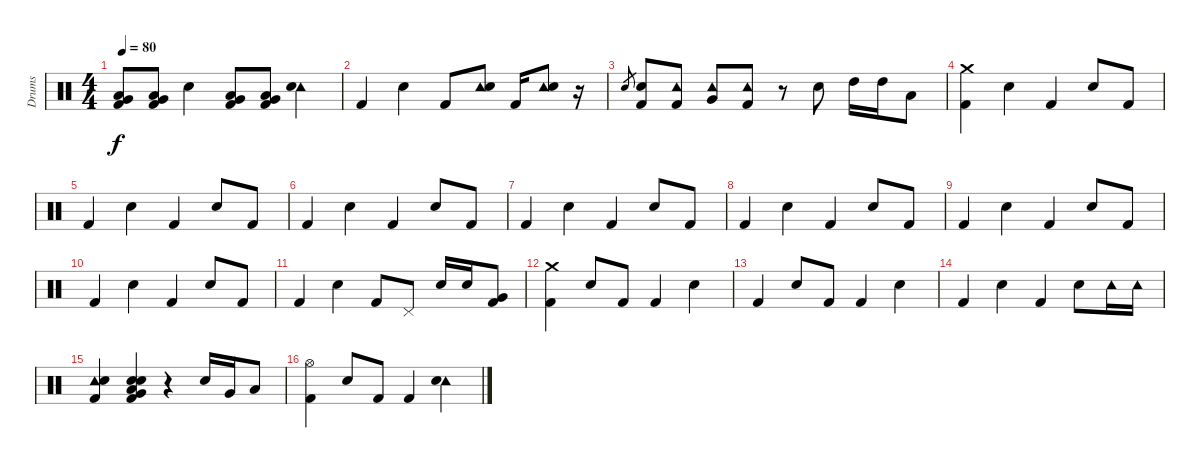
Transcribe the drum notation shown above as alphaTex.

\track ("Drums" "Drums") {instrument percussion}
\staff {score}
\articulation defaults
\ts (4 4)
\tempo 80
\clef neutral
\ks c
("Very Low Tom (hit)" "Kick (hit) 2" "Low Floor Tom (hit)").8{dy f} ("Very Low Tom (hit)" "Kick (hit) 2" "Low Floor Tom (hit)").8 "Electric Snare (hit)".4 ("Very Low Tom (hit)" "Kick (hit) 2" "Low Floor Tom (hit)").8 ("Very Low Tom (hit)" "Kick (hit) 2" "Low Floor Tom (hit)").8 ("Tambourine (hit)" "Electric Snare (hit)").4 |
"Kick (hit) 2".4 "Electric Snare (hit)".4 "Kick (hit) 2".8 ("Tambourine (hit)" "Electric Snare (hit)").8 "Kick (hit) 2".16 ("Tambourine (hit)" "Electric Snare (hit)").8 r.16 |
"Electric Snare (hit)".8{gr} ("Electric Snare (hit)" "Kick (hit) 2").8 ("Tambourine (hit)" "Kick (hit) 2").8 ("Tambourine (hit)" "Very Low Tom (hit)").8 ("Tambourine (hit)" "Kick (hit) 2").8 r.8 "Electric Snare (hit)".8 "High Tom (hit)".16 "High Tom (hit)".16 "Low Tom (hit)".8 |
("Crash medium (hit)" "Kick (hit) 2").4 "Electric Snare (hit)".4 "Kick (hit) 2".4 "Electric Snare (hit)".8 "Kick (hit) 2".8 |
"Kick (hit) 2".4 "Electric Snare (hit)".4 "Kick (hit) 2".4 "Electric Snare (hit)".8 "Kick (hit) 2".8 |
"Kick (hit) 2".4 "Electric Snare (hit)".4 "Kick (hit) 2".4 "Electric Snare (hit)".8 "Kick (hit) 2".8 |
"Kick (hit) 2".4 "Electric Snare (hit)".4 "Kick (hit) 2".4 "Electric Snare (hit)".8 "Kick (hit) 2".8 |
"Kick (hit) 2".4 "Electric Snare (hit)".4 "Kick (hit) 2".4 "Electric Snare (hit)".8 "Kick (hit) 2".8 |
"Kick (hit) 2".4 "Electric Snare (hit)".4 "Kick (hit) 2".4 "Electric Snare (hit)".8 "Kick (hit) 2".8 |
"Kick (hit) 2".4 "Electric Snare (hit)".4 "Kick (hit) 2".4 "Electric Snare (hit)".8 "Kick (hit) 2".8 |
"Kick (hit) 2".4 "Electric Snare (hit)".4 "Kick (hit) 2".8 "Pedal Hi-Hat (hit)".8 "Electric Snare (hit)".16 "Electric Snare (hit)".16 ("Very Low Tom (hit)" "Kick (hit) 2").8 |
("Crash medium (hit)" "Kick (hit) 2").4 "Electric Snare (hit)".8 "Kick (hit) 2".8 "Kick (hit) 2".4 "Electric Snare (hit)".4 |
"Kick (hit) 2".4 "Electric Snare (hit)".8 "Kick (hit) 2".8 "Kick (hit) 2".4 "Electric Snare (hit)".4 |
"Kick (hit) 2".4 "Electric Snare (hit)".4 "Kick (hit) 2".4 "Electric Snare (hit)".8 "Tambourine (hit)".16 "Tambourine (hit)".16 |
("Tambourine (hit)" "Electric Snare (hit)" "Kick (hit) 2").4 ("Snare (hit) 2" "Electric Snare (hit)" "Very Low Tom (hit)" "Kick (hit) 2" "Low Floor Tom (hit)").4 r.4 "Electric Snare (hit)".16 "Very Low Tom (hit)".16 "Low Floor Tom (hit)".8 |
("Hi-Hat (open)" "Kick (hit) 2").4 "Electric Snare (hit)".8 "Kick (hit) 2".8 "Kick (hit) 2".4 ("Tambourine (hit)" "Electric Snare (hit)").4
